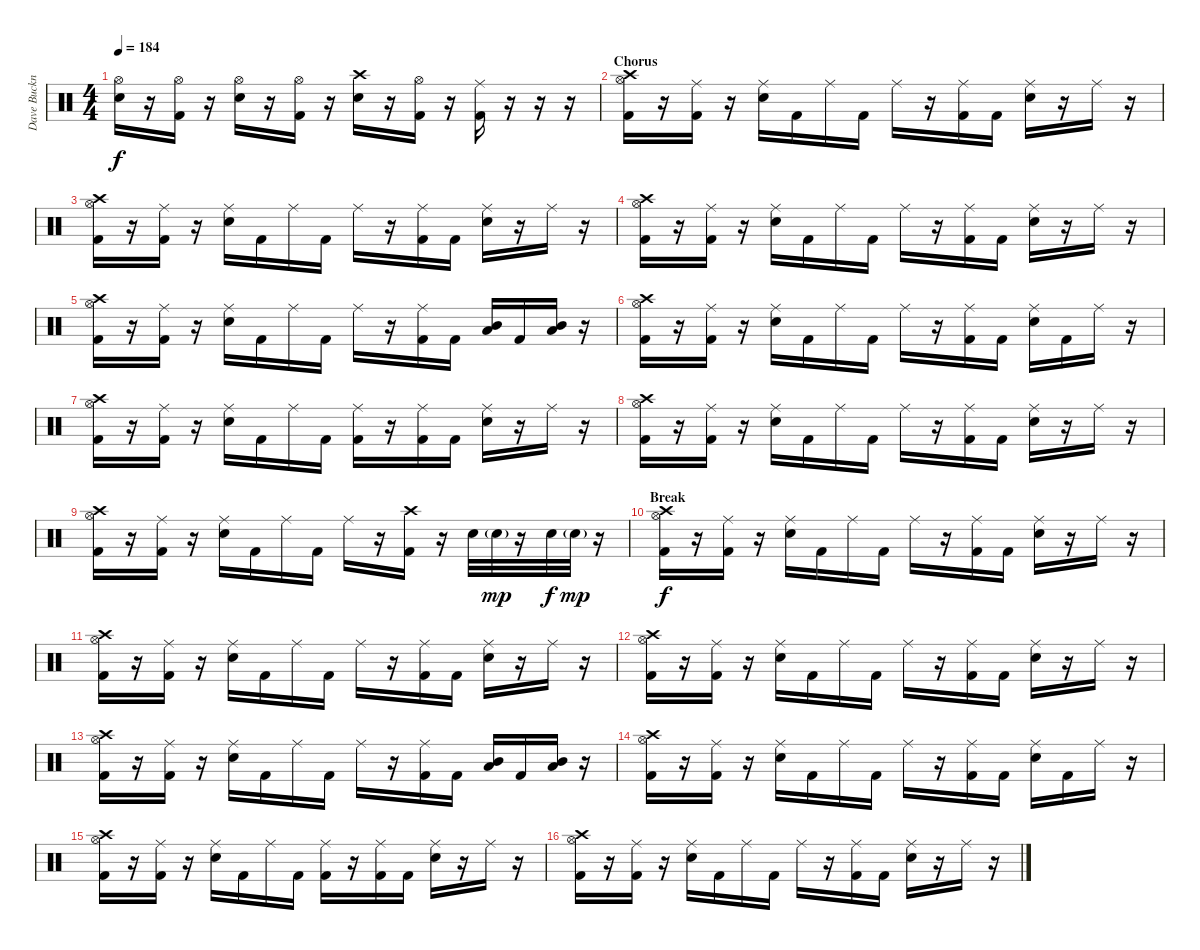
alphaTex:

\track ("Dave Buckner" "Dave Buckn") {instrument percussion}
\staff {score}
\articulation defaults
\ts (4 4)
\tempo 184
\clef neutral
\ks c
("Hi-Hat (open)" "Snare (hit) 2").16{dy f} r.16 ("Hi-Hat (open)" "Kick (hit) 2").16 r.16 ("Hi-Hat (open)" "Snare (hit) 2").16 r.16 ("Hi-Hat (open)" "Kick (hit) 2").16 r.16 ("Crash high (hit)" "Snare (hit) 2").16 r.16 ("Hi-Hat (open)" "Kick (hit) 2").16 r.16 ("Ride (middle)" "Kick (hit) 2").16 r.16 r.16 r.16 |
\section ("" "Chorus")
("Crash high (hit)" "Hi-Hat (open)" "Kick (hit) 2").16 r.16 ("Ride (middle)" "Kick (hit) 2").16 r.16 ("Ride (middle)" "Snare (hit) 2").16 "Kick (hit) 2".16 "Ride (middle)".16 "Kick (hit) 2".16 "Ride (middle)".16 r.16 ("Ride (middle)" "Kick (hit) 2").16 "Kick (hit) 2".16 ("Ride (middle)" "Snare (hit) 2").16 r.16 "Ride (middle)".16 r.16 |
("Crash high (hit)" "Hi-Hat (open)" "Kick (hit) 2").16 r.16 ("Ride (middle)" "Kick (hit) 2").16 r.16 ("Ride (middle)" "Snare (hit) 2").16 "Kick (hit) 2".16 "Ride (middle)".16 "Kick (hit) 2".16 "Ride (middle)".16 r.16 ("Ride (middle)" "Kick (hit) 2").16 "Kick (hit) 2".16 ("Ride (middle)" "Snare (hit) 2").16 r.16 "Ride (middle)".16 r.16 |
("Crash high (hit)" "Hi-Hat (open)" "Kick (hit) 2").16 r.16 ("Ride (middle)" "Kick (hit) 2").16 r.16 ("Ride (middle)" "Snare (hit) 2").16 "Kick (hit) 2".16 "Ride (middle)".16 "Kick (hit) 2".16 "Ride (middle)".16 r.16 ("Ride (middle)" "Kick (hit) 2").16 "Kick (hit) 2".16 ("Ride (middle)" "Snare (hit) 2").16 r.16 "Ride (middle)".16 r.16 |
("Crash high (hit)" "Hi-Hat (open)" "Kick (hit) 2").16 r.16 ("Ride (middle)" "Kick (hit) 2").16 r.16 ("Ride (middle)" "Snare (hit) 2").16 "Kick (hit) 2".16 "Ride (middle)".16 "Kick (hit) 2".16 "Ride (middle)".16 r.16 ("Ride (middle)" "Kick (hit) 2").16 "Kick (hit) 2".16 ("Low Tom (hit)" "Mid Tom (hit)").16 "Kick (hit) 2".16 ("Low Tom (hit)" "Mid Tom (hit)").16 r.16 |
("Crash high (hit)" "Hi-Hat (open)" "Kick (hit) 2").16 r.16 ("Ride (middle)" "Kick (hit) 2").16 r.16 ("Ride (middle)" "Snare (hit) 2").16 "Kick (hit) 2".16 "Ride (middle)".16 "Kick (hit) 2".16 "Ride (middle)".16 r.16 ("Ride (middle)" "Kick (hit) 2").16 "Kick (hit) 2".16 ("Ride (middle)" "Snare (hit) 2").16 "Kick (hit) 2".16 "Ride (middle)".16 r.16 |
("Crash high (hit)" "Hi-Hat (open)" "Kick (hit) 2").16 r.16 ("Ride (middle)" "Kick (hit) 2").16 r.16 ("Ride (middle)" "Snare (hit) 2").16 "Kick (hit) 2".16 "Ride (middle)".16 "Kick (hit) 2".16 ("Ride (middle)" "Kick (hit) 2").16 r.16 ("Ride (middle)" "Kick (hit) 2").16 "Kick (hit) 2".16 ("Ride (middle)" "Snare (hit) 2").16 r.16 "Ride (middle)".16 r.16 |
("Crash high (hit)" "Hi-Hat (open)" "Kick (hit) 2").16 r.16 ("Ride (middle)" "Kick (hit) 2").16 r.16 ("Ride (middle)" "Snare (hit) 2").16 "Kick (hit) 2".16 "Ride (middle)".16 "Kick (hit) 2".16 "Ride (middle)".16 r.16 ("Ride (middle)" "Kick (hit) 2").16 "Kick (hit) 2".16 ("Ride (middle)" "Snare (hit) 2").16 r.16 "Ride (middle)".16 r.16 |
("Crash high (hit)" "Hi-Hat (open)" "Kick (hit) 2").16 r.16 ("Ride (middle)" "Kick (hit) 2").16 r.16 ("Ride (middle)" "Snare (hit) 2").16 "Kick (hit) 2".16 "Ride (middle)".16 "Kick (hit) 2".16 "Ride (middle)".16 r.16 ("Crash high (hit)" "Kick (hit) 2").16 r.16 "Snare (hit) 2".32 "Snare (hit) 2"{g}.32{dy mp} r.16 "Snare (hit) 2".32{dy f} "Snare (hit) 2"{g}.32{dy mp} r.16 |
\section ("" "Break")
("Crash high (hit)" "Hi-Hat (open)" "Kick (hit) 2").16{dy f} r.16 ("Ride (middle)" "Kick (hit) 2").16 r.16 ("Ride (middle)" "Snare (hit) 2").16 "Kick (hit) 2".16 "Ride (middle)".16 "Kick (hit) 2".16 "Ride (middle)".16 r.16 ("Ride (middle)" "Kick (hit) 2").16 "Kick (hit) 2".16 ("Ride (middle)" "Snare (hit) 2").16 r.16 "Ride (middle)".16 r.16 |
("Crash high (hit)" "Hi-Hat (open)" "Kick (hit) 2").16 r.16 ("Ride (middle)" "Kick (hit) 2").16 r.16 ("Ride (middle)" "Snare (hit) 2").16 "Kick (hit) 2".16 "Ride (middle)".16 "Kick (hit) 2".16 "Ride (middle)".16 r.16 ("Ride (middle)" "Kick (hit) 2").16 "Kick (hit) 2".16 ("Ride (middle)" "Snare (hit) 2").16 r.16 "Ride (middle)".16 r.16 |
("Crash high (hit)" "Hi-Hat (open)" "Kick (hit) 2").16 r.16 ("Ride (middle)" "Kick (hit) 2").16 r.16 ("Ride (middle)" "Snare (hit) 2").16 "Kick (hit) 2".16 "Ride (middle)".16 "Kick (hit) 2".16 "Ride (middle)".16 r.16 ("Ride (middle)" "Kick (hit) 2").16 "Kick (hit) 2".16 ("Ride (middle)" "Snare (hit) 2").16 r.16 "Ride (middle)".16 r.16 |
("Crash high (hit)" "Hi-Hat (open)" "Kick (hit) 2").16 r.16 ("Ride (middle)" "Kick (hit) 2").16 r.16 ("Ride (middle)" "Snare (hit) 2").16 "Kick (hit) 2".16 "Ride (middle)".16 "Kick (hit) 2".16 "Ride (middle)".16 r.16 ("Ride (middle)" "Kick (hit) 2").16 "Kick (hit) 2".16 ("Low Tom (hit)" "Mid Tom (hit)").16 "Kick (hit) 2".16 ("Low Tom (hit)" "Mid Tom (hit)").16 r.16 |
("Crash high (hit)" "Hi-Hat (open)" "Kick (hit) 2").16 r.16 ("Ride (middle)" "Kick (hit) 2").16 r.16 ("Ride (middle)" "Snare (hit) 2").16 "Kick (hit) 2".16 "Ride (middle)".16 "Kick (hit) 2".16 "Ride (middle)".16 r.16 ("Ride (middle)" "Kick (hit) 2").16 "Kick (hit) 2".16 ("Ride (middle)" "Snare (hit) 2").16 "Kick (hit) 2".16 "Ride (middle)".16 r.16 |
("Crash high (hit)" "Hi-Hat (open)" "Kick (hit) 2").16 r.16 ("Ride (middle)" "Kick (hit) 2").16 r.16 ("Ride (middle)" "Snare (hit) 2").16 "Kick (hit) 2".16 "Ride (middle)".16 "Kick (hit) 2".16 ("Ride (middle)" "Kick (hit) 2").16 r.16 ("Ride (middle)" "Kick (hit) 2").16 "Kick (hit) 2".16 ("Ride (middle)" "Snare (hit) 2").16 r.16 "Ride (middle)".16 r.16 |
("Crash high (hit)" "Hi-Hat (open)" "Kick (hit) 2").16 r.16 ("Ride (middle)" "Kick (hit) 2").16 r.16 ("Ride (middle)" "Snare (hit) 2").16 "Kick (hit) 2".16 "Ride (middle)".16 "Kick (hit) 2".16 "Ride (middle)".16 r.16 ("Ride (middle)" "Kick (hit) 2").16 "Kick (hit) 2".16 ("Ride (middle)" "Snare (hit) 2").16 r.16 "Ride (middle)".16 r.16
